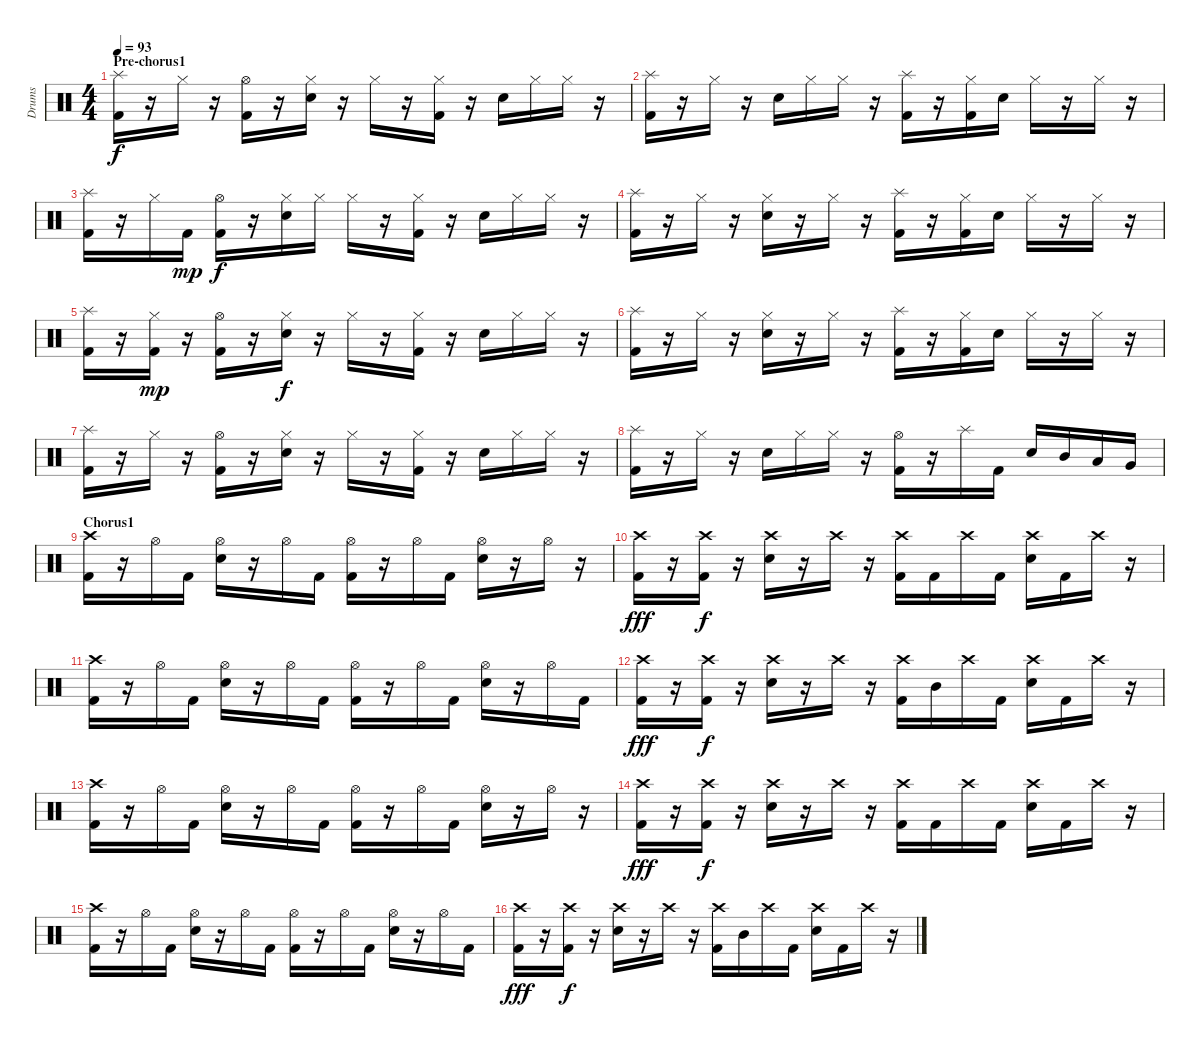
\track ("Drums" "Drums") {instrument percussion}
\staff {score}
\articulation defaults
\ts (4 4)
\section ("" "Pre-chorus1")
\tempo 93
\clef neutral
\ks c
("Splash (hit)" "Kick (hit) 2").16{dy f} r.16 "Hi-Hat (closed)".16 r.16 ("Hi-Hat (open)" "Kick (hit) 2").16 r.16 ("Hi-Hat (closed)" "Snare (hit) 2").16 r.16 "Hi-Hat (closed)".16 r.16 ("Hi-Hat (closed)" "Kick (hit) 2").16 r.16 "Snare (hit) 2".16 "Hi-Hat (closed)".16 "Hi-Hat (closed)".16 r.16 |
("Splash (hit)" "Kick (hit) 2").16 r.16 "Hi-Hat (closed)".16 r.16 "Snare (hit) 2".16 "Hi-Hat (closed)".16 "Hi-Hat (closed)".16 r.16 ("Splash (hit)" "Kick (hit) 2").16 r.16 ("Hi-Hat (closed)" "Kick (hit) 2").16 "Snare (hit) 2".16 "Hi-Hat (closed)".16 r.16 "Hi-Hat (closed)".16 r.16 |
("Splash (hit)" "Kick (hit) 2").16 r.16 "Hi-Hat (closed)".16 "Kick (hit) 2".16{dy mp} ("Hi-Hat (open)" "Kick (hit) 2").16{dy f} r.16 ("Hi-Hat (closed)" "Snare (hit) 2").16 "Hi-Hat (closed)".16 "Hi-Hat (closed)".16 r.16 ("Hi-Hat (closed)" "Kick (hit) 2").16 r.16 "Snare (hit) 2".16 "Hi-Hat (closed)".16 "Hi-Hat (closed)".16 r.16 |
("Splash (hit)" "Kick (hit) 2").16 r.16 "Hi-Hat (closed)".16 r.16 ("Hi-Hat (closed)" "Snare (hit) 2").16 r.16 "Hi-Hat (closed)".16 r.16 ("Splash (hit)" "Kick (hit) 2").16 r.16 ("Hi-Hat (closed)" "Kick (hit) 2").16 "Snare (hit) 2".16 "Hi-Hat (closed)".16 r.16 "Hi-Hat (closed)".16 r.16 |
("Splash (hit)" "Kick (hit) 2").16 r.16 ("Hi-Hat (closed)" "Kick (hit) 2").16{dy mp} r.16 ("Hi-Hat (open)" "Kick (hit) 2").16 r.16 ("Hi-Hat (closed)" "Snare (hit) 2").16{dy f} r.16 "Hi-Hat (closed)".16 r.16 ("Hi-Hat (closed)" "Kick (hit) 2").16 r.16 "Snare (hit) 2".16 "Hi-Hat (closed)".16 "Hi-Hat (closed)".16 r.16 |
("Splash (hit)" "Kick (hit) 2").16 r.16 "Hi-Hat (closed)".16 r.16 ("Hi-Hat (closed)" "Snare (hit) 2").16 r.16 "Hi-Hat (closed)".16 r.16 ("Splash (hit)" "Kick (hit) 2").16 r.16 ("Hi-Hat (closed)" "Kick (hit) 2").16 "Snare (hit) 2".16 "Hi-Hat (closed)".16 r.16 "Hi-Hat (closed)".16 r.16 |
("Splash (hit)" "Kick (hit) 2").16 r.16 "Hi-Hat (closed)".16 r.16 ("Hi-Hat (open)" "Kick (hit) 2").16 r.16 ("Hi-Hat (closed)" "Snare (hit) 2").16 r.16 "Hi-Hat (closed)".16 r.16 ("Hi-Hat (closed)" "Kick (hit) 2").16 r.16 "Snare (hit) 2".16 "Hi-Hat (closed)".16 "Hi-Hat (closed)".16 r.16 |
("Splash (hit)" "Kick (hit) 2").16 r.16 "Hi-Hat (closed)".16 r.16 "Snare (hit) 2".16 "Hi-Hat (closed)".16 "Hi-Hat (closed)".16 r.16 ("Hi-Hat (open)" "Kick (hit) 2").16 r.16 "Splash (hit)".16 "Kick (hit) 2".16 "Snare (hit) 2".16 "Mid Tom (hit)".16 "Low Tom (hit)".16 "Very Low Tom (hit)".16 |
\section ("" "Chorus1")
("Crash high (hit)" "Kick (hit) 2").16 r.16 "Hi-Hat (open)".16 "Kick (hit) 2".16 ("Hi-Hat (open)" "Snare (hit) 2").16 r.16 "Hi-Hat (open)".16 "Kick (hit) 2".16 ("Hi-Hat (open)" "Kick (hit) 2").16 r.16 "Hi-Hat (open)".16 "Kick (hit) 2".16 ("Hi-Hat (open)" "Snare (hit) 2").16 r.16 "Hi-Hat (open)".16 r.16 |
("Crash high (hit)" "Kick (hit) 2").16{dy fff} r.16 ("Crash high (hit)" "Kick (hit) 2").16{dy f} r.16 ("Crash high (hit)" "Snare (hit) 2").16 r.16 "Crash high (hit)".16 r.16 ("Crash high (hit)" "Kick (hit) 2").16 "Kick (hit) 2".16 "Crash high (hit)".16 "Kick (hit) 2".16 ("Crash high (hit)" "Snare (hit) 2").16 "Kick (hit) 2".16 "Crash high (hit)".16 r.16 |
("Crash high (hit)" "Kick (hit) 2").16 r.16 "Hi-Hat (open)".16 "Kick (hit) 2".16 ("Hi-Hat (open)" "Snare (hit) 2").16 r.16 "Hi-Hat (open)".16 "Kick (hit) 2".16 ("Hi-Hat (open)" "Kick (hit) 2").16 r.16 "Hi-Hat (open)".16 "Kick (hit) 2".16 ("Hi-Hat (open)" "Snare (hit) 2").16 r.16 "Hi-Hat (open)".16 "Kick (hit) 2".16 |
("Crash high (hit)" "Kick (hit) 2").16{dy fff} r.16 ("Crash high (hit)" "Kick (hit) 2").16{dy f} r.16 ("Crash high (hit)" "Snare (hit) 2").16 r.16 "Crash high (hit)".16 r.16 ("Crash high (hit)" "Kick (hit) 2").16 "Mid Tom (hit)".16 "Crash high (hit)".16 "Kick (hit) 2".16 ("Crash high (hit)" "Snare (hit) 2").16 "Kick (hit) 2".16 "Crash high (hit)".16 r.16 |
("Crash high (hit)" "Kick (hit) 2").16 r.16 "Hi-Hat (open)".16 "Kick (hit) 2".16 ("Hi-Hat (open)" "Snare (hit) 2").16 r.16 "Hi-Hat (open)".16 "Kick (hit) 2".16 ("Hi-Hat (open)" "Kick (hit) 2").16 r.16 "Hi-Hat (open)".16 "Kick (hit) 2".16 ("Hi-Hat (open)" "Snare (hit) 2").16 r.16 "Hi-Hat (open)".16 r.16 |
("Crash high (hit)" "Kick (hit) 2").16{dy fff} r.16 ("Crash high (hit)" "Kick (hit) 2").16{dy f} r.16 ("Crash high (hit)" "Snare (hit) 2").16 r.16 "Crash high (hit)".16 r.16 ("Crash high (hit)" "Kick (hit) 2").16 "Kick (hit) 2".16 "Crash high (hit)".16 "Kick (hit) 2".16 ("Crash high (hit)" "Snare (hit) 2").16 "Kick (hit) 2".16 "Crash high (hit)".16 r.16 |
("Crash high (hit)" "Kick (hit) 2").16 r.16 "Hi-Hat (open)".16 "Kick (hit) 2".16 ("Hi-Hat (open)" "Snare (hit) 2").16 r.16 "Hi-Hat (open)".16 "Kick (hit) 2".16 ("Hi-Hat (open)" "Kick (hit) 2").16 r.16 "Hi-Hat (open)".16 "Kick (hit) 2".16 ("Hi-Hat (open)" "Snare (hit) 2").16 r.16 "Hi-Hat (open)".16 "Kick (hit) 2".16 |
("Crash high (hit)" "Kick (hit) 2").16{dy fff} r.16 ("Crash high (hit)" "Kick (hit) 2").16{dy f} r.16 ("Crash high (hit)" "Snare (hit) 2").16 r.16 "Crash high (hit)".16 r.16 ("Crash high (hit)" "Kick (hit) 2").16 "Mid Tom (hit)".16 "Crash high (hit)".16 "Kick (hit) 2".16 ("Crash high (hit)" "Snare (hit) 2").16 "Kick (hit) 2".16 "Crash high (hit)".16 r.16
